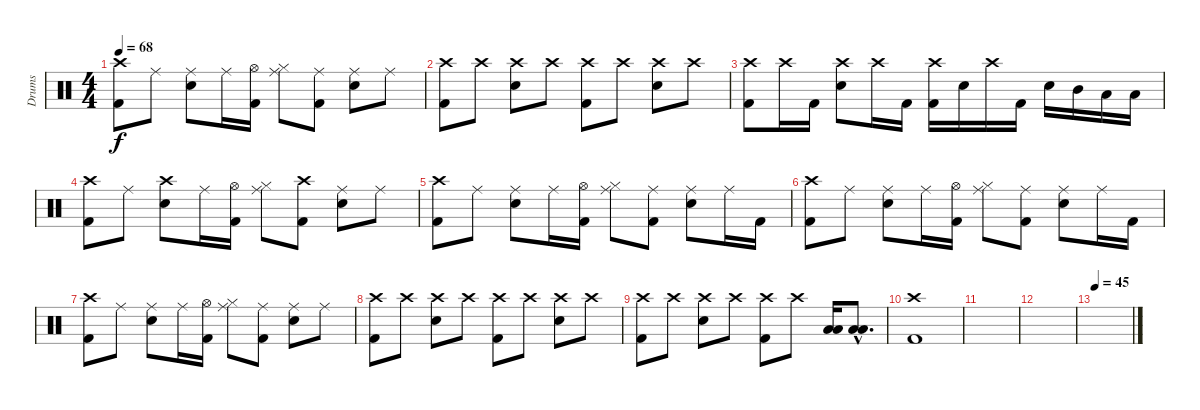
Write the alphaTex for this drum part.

\track ("Drums" "Drums") {instrument percussion}
\staff {score}
\articulation defaults
\ts (4 4)
\tempo 68
\clef neutral
\ks c
("Crash high (hit)" "Kick (hit) 2").8{dy f} "Ride (middle)".8 ("Ride (middle)" "Electric Snare (hit)").8 "Ride (middle)".16 ("Hi-Hat (open)" "Kick (hit) 2").16 ("Ride (middle)" "Hi-Hat (closed)").8 ("Ride (middle)" "Kick (hit) 2").8 ("Ride (middle)" "Electric Snare (hit)").8 "Ride (middle)".8 |
("Crash high (hit)" "Kick (hit) 2").8 "Crash high (hit)".8 ("Crash high (hit)" "Electric Snare (hit)").8 "Crash high (hit)".8 ("Crash high (hit)" "Kick (hit) 2").8 "Crash high (hit)".8 ("Crash high (hit)" "Electric Snare (hit)").8 "Crash high (hit)".8 |
("Crash high (hit)" "Kick (hit) 2").8 "Crash high (hit)".16 "Kick (hit) 2".16 ("Crash high (hit)" "Electric Snare (hit)").8 "Crash high (hit)".16 "Kick (hit) 2".16 ("Crash high (hit)" "Kick (hit) 2").16 "Electric Snare (hit)".16 "Crash high (hit)".16 "Kick (hit) 2".16 "Electric Snare (hit)".16 "Mid Tom (hit)".16 "Low Tom (hit)".16 "Low Floor Tom (hit)".16 |
("Crash high (hit)" "Kick (hit) 2").8 "Ride (middle)".8 ("Crash high (hit)" "Electric Snare (hit)").8 "Ride (middle)".16 ("Hi-Hat (open)" "Kick (hit) 2").16 ("Ride (middle)" "Hi-Hat (closed)").8 ("Crash high (hit)" "Kick (hit) 2").8 ("Ride (middle)" "Electric Snare (hit)").8 "Ride (middle)".8 |
("Crash high (hit)" "Kick (hit) 2").8 "Ride (middle)".8 ("Ride (middle)" "Electric Snare (hit)").8 "Ride (middle)".16 ("Hi-Hat (open)" "Kick (hit) 2").16 ("Ride (middle)" "Hi-Hat (closed)").8 ("Ride (middle)" "Kick (hit) 2").8 ("Ride (middle)" "Electric Snare (hit)").8 "Ride (middle)".16 "Kick (hit) 2".16 |
("Crash high (hit)" "Kick (hit) 2").8 "Ride (middle)".8 ("Ride (middle)" "Electric Snare (hit)").8 "Ride (middle)".16 ("Hi-Hat (open)" "Kick (hit) 2").16 ("Ride (middle)" "Hi-Hat (closed)").8 ("Ride (middle)" "Kick (hit) 2").8 ("Ride (middle)" "Electric Snare (hit)").8 "Ride (middle)".16 "Kick (hit) 2".16 |
("Crash high (hit)" "Kick (hit) 2").8 "Ride (middle)".8 ("Ride (middle)" "Electric Snare (hit)").8 "Ride (middle)".16 ("Hi-Hat (open)" "Kick (hit) 2").16 ("Ride (middle)" "Hi-Hat (closed)").8 ("Ride (middle)" "Kick (hit) 2").8 ("Ride (middle)" "Electric Snare (hit)").8 "Ride (middle)".8 |
("Crash high (hit)" "Kick (hit) 2").8 "Crash high (hit)".8 ("Crash high (hit)" "Electric Snare (hit)").8 "Crash high (hit)".8 ("Crash high (hit)" "Kick (hit) 2").8 "Crash high (hit)".8 ("Crash high (hit)" "Electric Snare (hit)").8 "Crash high (hit)".8 |
("Crash high (hit)" "Kick (hit) 2").8 "Crash high (hit)".8 ("Crash high (hit)" "Electric Snare (hit)").8 "Crash high (hit)".8 ("Crash high (hit)" "Kick (hit) 2").8 "Crash high (hit)".8 ("Low Tom (hit)" "Low Floor Tom (hit)").16 ("Low Tom (hit)"{hac} "Low Floor Tom (hit)"{hac}).8{d} |
("Crash high (hit)" "Kick (hit) 2").1 |
|
|
\tempo 45
